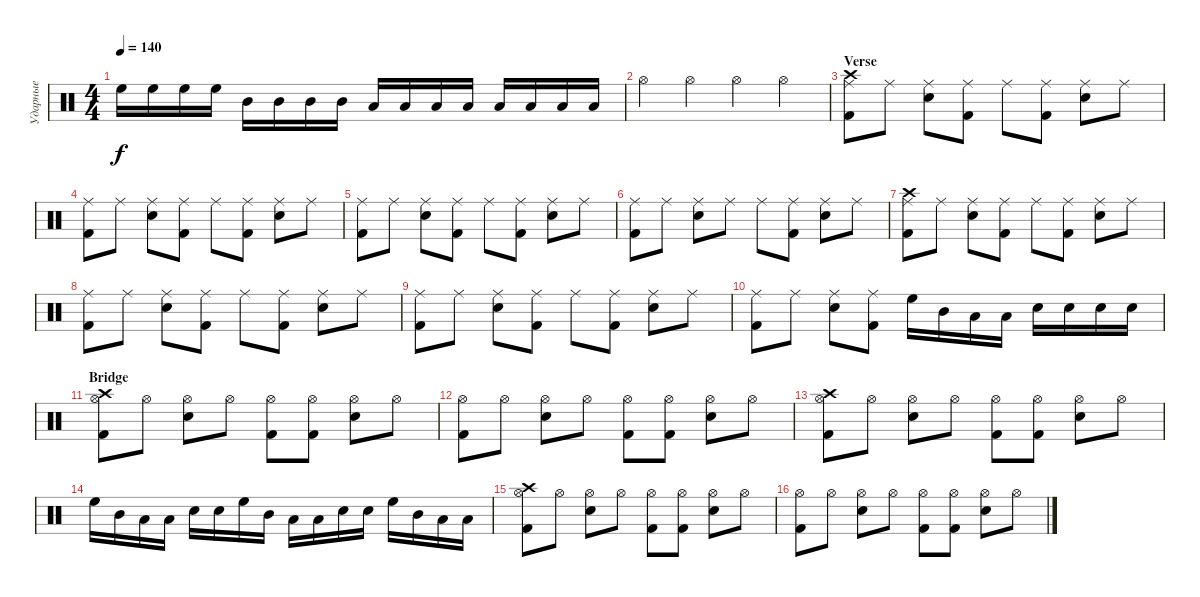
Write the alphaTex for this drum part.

\track ("Ударные" "Ударные") {instrument percussion}
\staff {score}
\articulation defaults
\ts (4 4)
\tempo 140
\clef neutral
\ks c "High Floor Tom (hit)".16{dy f} "High Floor Tom (hit)".16 "High Floor Tom (hit)".16 "High Floor Tom (hit)".16 "Mid Tom (hit)".16 "Mid Tom (hit)".16 "Mid Tom (hit)".16 "Mid Tom (hit)".16 "Low Tom (hit)".16 "Low Tom (hit)".16 "Low Tom (hit)".16 "Low Tom (hit)".16 "Low Floor Tom (hit)".16 "Low Floor Tom (hit)".16 "Low Floor Tom (hit)".16 "Low Floor Tom (hit)".16
|
"Hi-Hat (open)".4 "Hi-Hat (open)".4 "Hi-Hat (open)".4 "Hi-Hat (open)".4 |
\section ("" "Verse")
("Ride (middle)" "Crash high (hit)" "Kick (hit) 2").8 "Ride (middle)".8 ("Ride (middle)" "Snare (hit) 2").8 ("Ride (middle)" "Kick (hit) 2").8 "Ride (middle)".8 ("Ride (middle)" "Kick (hit) 2").8 ("Ride (middle)" "Snare (hit) 2").8 "Ride (middle)".8 |
("Ride (middle)" "Kick (hit) 2").8 "Ride (middle)".8 ("Ride (middle)" "Snare (hit) 2").8 ("Ride (middle)" "Kick (hit) 2").8 "Ride (middle)".8 ("Ride (middle)" "Kick (hit) 2").8 ("Ride (middle)" "Snare (hit) 2").8 "Ride (middle)".8 |
("Ride (middle)" "Kick (hit) 2").8 "Ride (middle)".8 ("Ride (middle)" "Snare (hit) 2").8 ("Ride (middle)" "Kick (hit) 2").8 "Ride (middle)".8 ("Ride (middle)" "Kick (hit) 2").8 ("Ride (middle)" "Snare (hit) 2").8 "Ride (middle)".8 |
("Ride (middle)" "Kick (hit) 2").8 "Ride (middle)".8 ("Ride (middle)" "Snare (hit) 2").8 "Ride (middle)".8 "Ride (middle)".8 ("Ride (middle)" "Kick (hit) 2").8 ("Ride (middle)" "Snare (hit) 2").8 "Ride (middle)".8 |
("Ride (middle)" "Crash high (hit)" "Kick (hit) 2").8 "Ride (middle)".8 ("Ride (middle)" "Snare (hit) 2").8 ("Ride (middle)" "Kick (hit) 2").8 "Ride (middle)".8 ("Ride (middle)" "Kick (hit) 2").8 ("Ride (middle)" "Snare (hit) 2").8 "Ride (middle)".8 |
("Ride (middle)" "Kick (hit) 2").8 "Ride (middle)".8 ("Ride (middle)" "Snare (hit) 2").8 ("Ride (middle)" "Kick (hit) 2").8 "Ride (middle)".8 ("Ride (middle)" "Kick (hit) 2").8 ("Ride (middle)" "Snare (hit) 2").8 "Ride (middle)".8 |
("Ride (middle)" "Kick (hit) 2").8 "Ride (middle)".8 ("Ride (middle)" "Snare (hit) 2").8 ("Ride (middle)" "Kick (hit) 2").8 "Ride (middle)".8 ("Ride (middle)" "Kick (hit) 2").8 ("Ride (middle)" "Snare (hit) 2").8 "Ride (middle)".8 |
("Ride (middle)" "Kick (hit) 2").8 "Ride (middle)".8 ("Ride (middle)" "Snare (hit) 2").8 ("Ride (middle)" "Kick (hit) 2").8 "High Floor Tom (hit)".16 "Mid Tom (hit)".16 "Low Tom (hit)".16 "Low Floor Tom (hit)".16 "Snare (hit) 2".16 "Snare (hit) 2".16 "Snare (hit) 2".16 "Snare (hit) 2".16 |
\section ("" "Bridge")
("Hi-Hat (open)" "Crash high (hit)" "Kick (hit) 2").8 "Hi-Hat (open)".8 ("Hi-Hat (open)" "Snare (hit) 2").8 "Hi-Hat (open)".8 ("Hi-Hat (open)" "Kick (hit) 2").8 ("Hi-Hat (open)" "Kick (hit) 2").8 ("Hi-Hat (open)" "Snare (hit) 2").8 "Hi-Hat (open)".8 |
("Hi-Hat (open)" "Kick (hit) 2").8 "Hi-Hat (open)".8 ("Hi-Hat (open)" "Snare (hit) 2").8 "Hi-Hat (open)".8 ("Hi-Hat (open)" "Kick (hit) 2").8 ("Hi-Hat (open)" "Kick (hit) 2").8 ("Hi-Hat (open)" "Snare (hit) 2").8 "Hi-Hat (open)".8 |
("Hi-Hat (open)" "Crash high (hit)" "Kick (hit) 2").8 "Hi-Hat (open)".8 ("Hi-Hat (open)" "Snare (hit) 2").8 "Hi-Hat (open)".8 ("Hi-Hat (open)" "Kick (hit) 2").8 ("Hi-Hat (open)" "Kick (hit) 2").8 ("Hi-Hat (open)" "Snare (hit) 2").8 "Hi-Hat (open)".8 |
"High Floor Tom (hit)".16 "Mid Tom (hit)".16 "Low Tom (hit)".16 "Low Floor Tom (hit)".16 "Snare (hit) 2".16 "Snare (hit) 2".16 "High Floor Tom (hit)".16 "Mid Tom (hit)".16 "Low Tom (hit)".16 "Low Floor Tom (hit)".16 "Snare (hit) 2".16 "Snare (hit) 2".16 "High Floor Tom (hit)".16 "Mid Tom (hit)".16 "Low Tom (hit)".16 "Low Floor Tom (hit)".16 |
("Hi-Hat (open)" "Crash high (hit)" "Kick (hit) 2").8 "Hi-Hat (open)".8 ("Hi-Hat (open)" "Snare (hit) 2").8 "Hi-Hat (open)".8 ("Hi-Hat (open)" "Kick (hit) 2").8 ("Hi-Hat (open)" "Kick (hit) 2").8 ("Hi-Hat (open)" "Snare (hit) 2").8 "Hi-Hat (open)".8 |
("Hi-Hat (open)" "Kick (hit) 2").8 "Hi-Hat (open)".8 ("Hi-Hat (open)" "Snare (hit) 2").8 "Hi-Hat (open)".8 ("Hi-Hat (open)" "Kick (hit) 2").8 ("Hi-Hat (open)" "Kick (hit) 2").8 ("Hi-Hat (open)" "Snare (hit) 2").8 "Hi-Hat (open)".8
